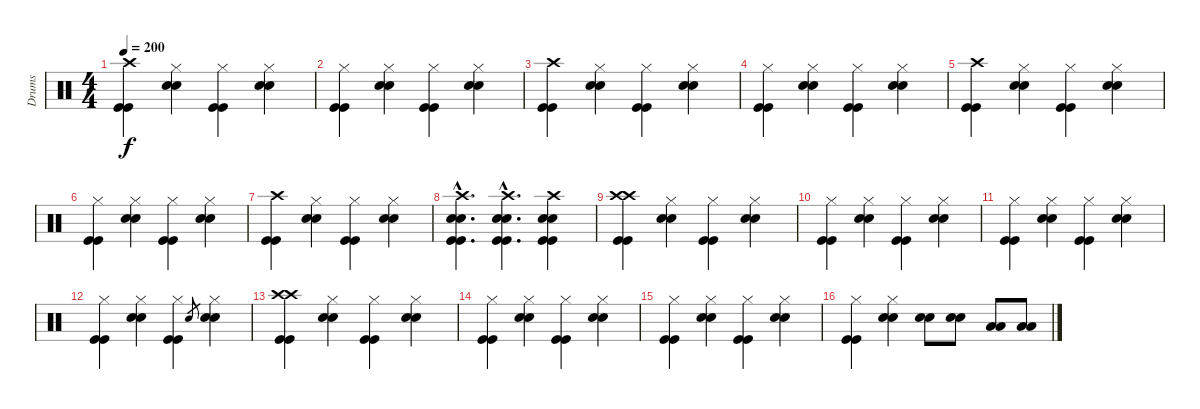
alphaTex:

\track ("Drums" "Drums") {instrument percussion}
\staff {score}
\articulation defaults
\ts (4 4)
\tempo 200
\clef neutral
\ks c
("Crash high (hit)" "Kick (hit)" "Kick (hit)").4{dy f} ("Hi-Hat (closed)" "Electric Snare (hit)" "Electric Snare (hit)").4 ("Hi-Hat (closed)" "Kick (hit)" "Kick (hit)").4 ("Hi-Hat (closed)" "Electric Snare (hit)" "Electric Snare (hit)").4 |
("Hi-Hat (closed)" "Kick (hit)" "Kick (hit)").4 ("Hi-Hat (closed)" "Electric Snare (hit)" "Electric Snare (hit)").4 ("Hi-Hat (closed)" "Kick (hit)" "Kick (hit)").4 ("Hi-Hat (closed)" "Electric Snare (hit)" "Electric Snare (hit)").4 |
("Crash high (hit)" "Kick (hit)" "Kick (hit)").4 ("Hi-Hat (closed)" "Electric Snare (hit)" "Electric Snare (hit)").4 ("Hi-Hat (closed)" "Kick (hit)" "Kick (hit)").4 ("Hi-Hat (closed)" "Electric Snare (hit)" "Electric Snare (hit)").4 |
("Hi-Hat (closed)" "Kick (hit)" "Kick (hit)").4 ("Hi-Hat (closed)" "Electric Snare (hit)" "Electric Snare (hit)").4 ("Hi-Hat (closed)" "Kick (hit)" "Kick (hit)").4 ("Hi-Hat (closed)" "Electric Snare (hit)" "Electric Snare (hit)").4 |
("Crash high (hit)" "Kick (hit)" "Kick (hit)").4 ("Hi-Hat (closed)" "Electric Snare (hit)" "Electric Snare (hit)").4 ("Hi-Hat (closed)" "Kick (hit)" "Kick (hit)").4 ("Hi-Hat (closed)" "Electric Snare (hit)" "Electric Snare (hit)").4 |
("Hi-Hat (closed)" "Kick (hit)" "Kick (hit)").4 ("Hi-Hat (closed)" "Electric Snare (hit)" "Electric Snare (hit)").4 ("Hi-Hat (closed)" "Kick (hit)" "Kick (hit)").4 ("Hi-Hat (closed)" "Electric Snare (hit)" "Electric Snare (hit)").4 |
("Crash high (hit)" "Kick (hit)" "Kick (hit)").4 ("Hi-Hat (closed)" "Electric Snare (hit)" "Electric Snare (hit)").4 ("Hi-Hat (closed)" "Kick (hit)" "Kick (hit)").4 ("Hi-Hat (closed)" "Electric Snare (hit)" "Electric Snare (hit)").4 |
("Crash high (hit)"{hac} "Electric Snare (hit)"{hac} "Electric Snare (hit)"{hac} "Kick (hit)"{hac} "Kick (hit)"{hac}).4{d} ("Crash high (hit)"{hac} "Electric Snare (hit)"{hac} "Electric Snare (hit)"{hac} "Kick (hit)"{hac} "Kick (hit)"{hac}).4{d} ("Crash high (hit)" "Electric Snare (hit)" "Electric Snare (hit)" "Kick (hit)" "Kick (hit)").4 |
("Crash high (hit)" "Crash high (hit)" "Kick (hit)" "Kick (hit)").4 ("Hi-Hat (closed)" "Electric Snare (hit)" "Electric Snare (hit)").4 ("Hi-Hat (closed)" "Kick (hit)" "Kick (hit)").4 ("Hi-Hat (closed)" "Electric Snare (hit)" "Electric Snare (hit)").4 |
("Hi-Hat (closed)" "Kick (hit)" "Kick (hit)").4 ("Hi-Hat (closed)" "Electric Snare (hit)" "Electric Snare (hit)").4 ("Hi-Hat (closed)" "Kick (hit)" "Kick (hit)").4 ("Hi-Hat (closed)" "Electric Snare (hit)" "Electric Snare (hit)").4 |
("Hi-Hat (closed)" "Kick (hit)" "Kick (hit)").4 ("Hi-Hat (closed)" "Electric Snare (hit)" "Electric Snare (hit)").4 ("Hi-Hat (closed)" "Kick (hit)" "Kick (hit)").4 ("Hi-Hat (closed)" "Electric Snare (hit)" "Electric Snare (hit)").4 |
("Hi-Hat (closed)" "Kick (hit)" "Kick (hit)").4 ("Hi-Hat (closed)" "Electric Snare (hit)" "Electric Snare (hit)").4 ("Hi-Hat (closed)" "Kick (hit)" "Kick (hit)").4 "Electric Snare (hit)".8{gr} ("Hi-Hat (closed)" "Electric Snare (hit)" "Electric Snare (hit)").4 |
("Crash high (hit)" "Crash high (hit)" "Kick (hit)" "Kick (hit)").4 ("Hi-Hat (closed)" "Electric Snare (hit)" "Electric Snare (hit)").4 ("Hi-Hat (closed)" "Kick (hit)" "Kick (hit)").4 ("Hi-Hat (closed)" "Electric Snare (hit)" "Electric Snare (hit)").4 |
("Hi-Hat (closed)" "Kick (hit)" "Kick (hit)").4 ("Hi-Hat (closed)" "Electric Snare (hit)" "Electric Snare (hit)").4 ("Hi-Hat (closed)" "Kick (hit)" "Kick (hit)").4 ("Hi-Hat (closed)" "Electric Snare (hit)" "Electric Snare (hit)").4 |
("Hi-Hat (closed)" "Kick (hit)" "Kick (hit)").4 ("Hi-Hat (closed)" "Electric Snare (hit)" "Electric Snare (hit)").4 ("Hi-Hat (closed)" "Kick (hit)" "Kick (hit)").4 ("Hi-Hat (closed)" "Electric Snare (hit)" "Electric Snare (hit)").4 |
("Hi-Hat (closed)" "Kick (hit)" "Kick (hit)").4 ("Hi-Hat (closed)" "Electric Snare (hit)" "Electric Snare (hit)").4 ("Electric Snare (hit)" "Electric Snare (hit)").8 ("Electric Snare (hit)" "Electric Snare (hit)").8 ("Low Tom (hit)" "Low Tom (hit)").8 ("Low Tom (hit)" "Low Tom (hit)").8
